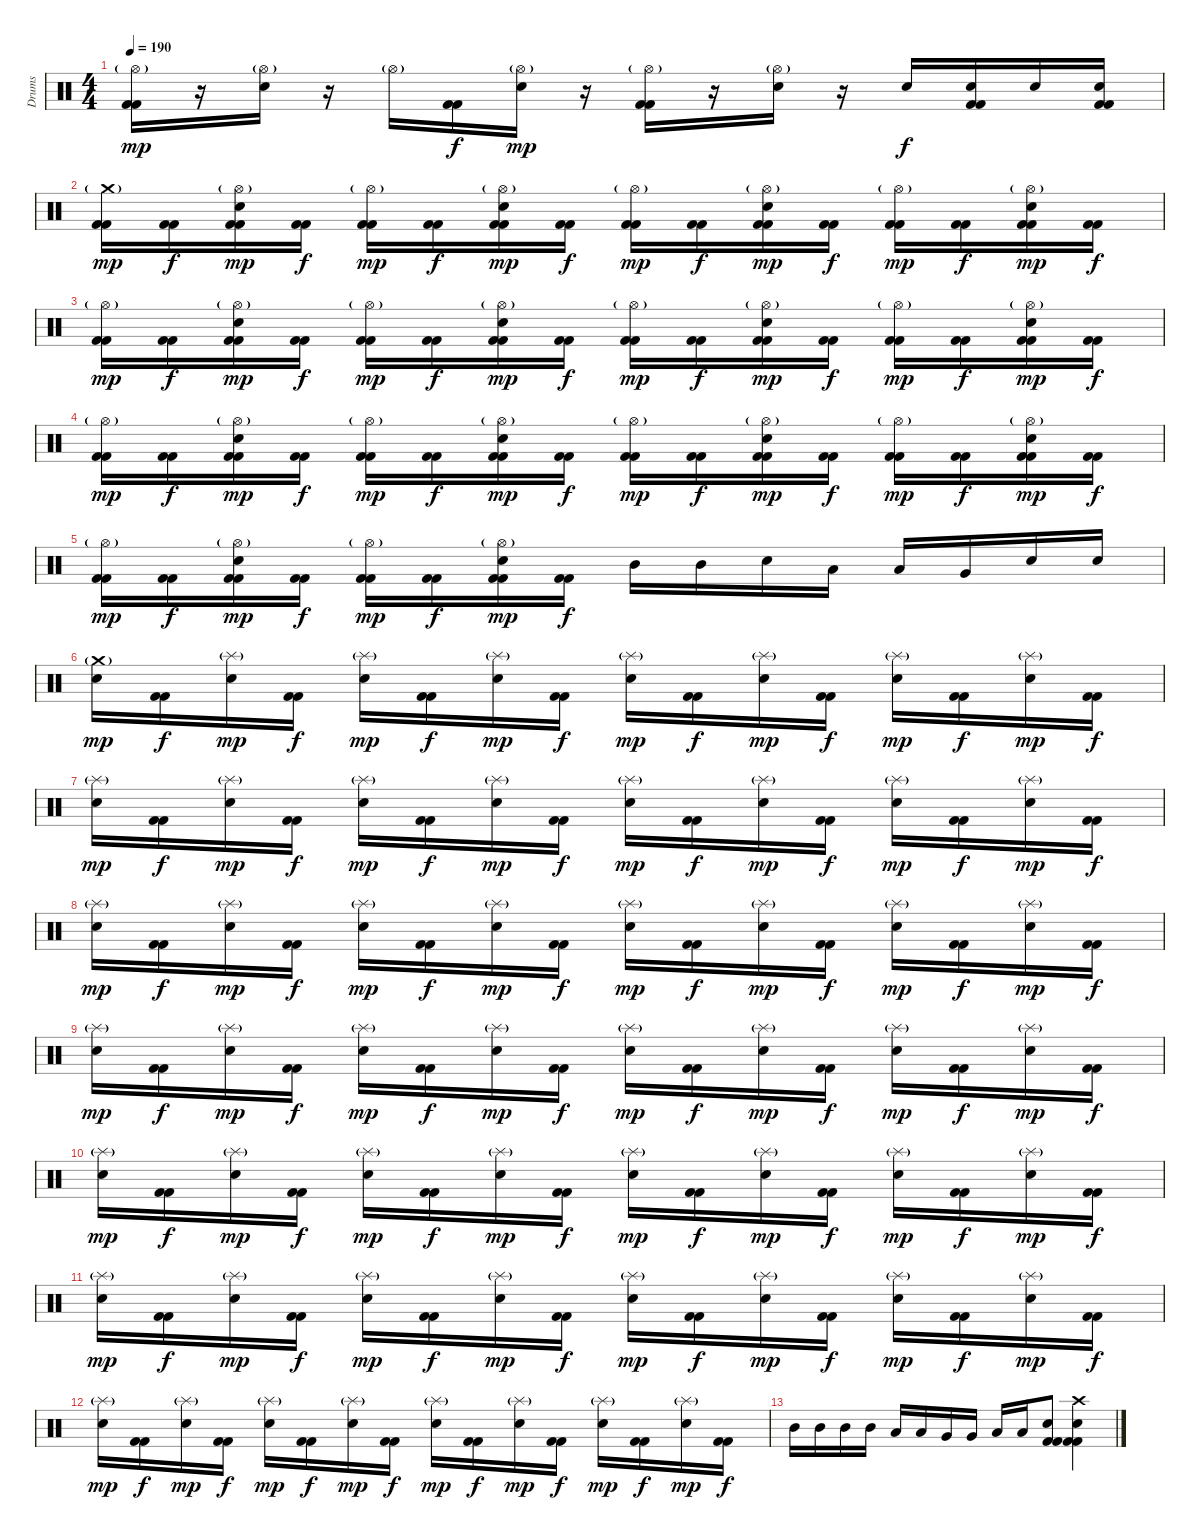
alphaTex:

\track ("Drums" "Drums") {instrument percussion}
\staff {score}
\articulation defaults
\ts (4 4)
\tempo 190
\clef neutral
\ks c
("Hi-Hat (open)"{g} "Kick (hit) 2" "Kick (hit) 2").16{dy mp} r.16 ("Hi-Hat (open)"{g} "Electric Snare (hit)").16 r.16 "Hi-Hat (open)"{g}.16 ("Kick (hit) 2" "Kick (hit) 2").16{dy f} ("Hi-Hat (open)"{g} "Electric Snare (hit)").16{dy mp} r.16 ("Hi-Hat (open)"{g} "Kick (hit) 2" "Kick (hit) 2").16 r.16 ("Hi-Hat (open)"{g} "Electric Snare (hit)").16 r.16 "Electric Snare (hit)".16{dy f} ("Kick (hit) 2" "Electric Snare (hit)" "Kick (hit) 2").16 "Electric Snare (hit)".16 ("Kick (hit) 2" "Electric Snare (hit)" "Kick (hit) 2").16 |
("Crash medium (hit)"{g} "Kick (hit) 2" "Kick (hit) 2").16{dy mp} ("Kick (hit) 2" "Kick (hit) 2").16{dy f} ("Hi-Hat (open)"{g} "Kick (hit) 2" "Electric Snare (hit)" "Kick (hit) 2").16{dy mp} ("Kick (hit) 2" "Kick (hit) 2").16{dy f} ("Hi-Hat (open)"{g} "Kick (hit) 2" "Kick (hit) 2").16{dy mp} ("Kick (hit) 2" "Kick (hit) 2").16{dy f} ("Hi-Hat (open)"{g} "Kick (hit) 2" "Electric Snare (hit)" "Kick (hit) 2").16{dy mp} ("Kick (hit) 2" "Kick (hit) 2").16{dy f} ("Hi-Hat (open)"{g} "Kick (hit) 2" "Kick (hit) 2").16{dy mp} ("Kick (hit) 2" "Kick (hit) 2").16{dy f} ("Hi-Hat (open)"{g} "Kick (hit) 2" "Electric Snare (hit)" "Kick (hit) 2").16{dy mp} ("Kick (hit) 2" "Kick (hit) 2").16{dy f} ("Hi-Hat (open)"{g} "Kick (hit) 2" "Kick (hit) 2").16{dy mp} ("Kick (hit) 2" "Kick (hit) 2").16{dy f} ("Hi-Hat (open)"{g} "Kick (hit) 2" "Electric Snare (hit)" "Kick (hit) 2").16{dy mp} ("Kick (hit) 2" "Kick (hit) 2").16{dy f} |
("Hi-Hat (open)"{g} "Kick (hit) 2" "Kick (hit) 2").16{dy mp} ("Kick (hit) 2" "Kick (hit) 2").16{dy f} ("Hi-Hat (open)"{g} "Kick (hit) 2" "Electric Snare (hit)" "Kick (hit) 2").16{dy mp} ("Kick (hit) 2" "Kick (hit) 2").16{dy f} ("Hi-Hat (open)"{g} "Kick (hit) 2" "Kick (hit) 2").16{dy mp} ("Kick (hit) 2" "Kick (hit) 2").16{dy f} ("Hi-Hat (open)"{g} "Kick (hit) 2" "Electric Snare (hit)" "Kick (hit) 2").16{dy mp} ("Kick (hit) 2" "Kick (hit) 2").16{dy f} ("Hi-Hat (open)"{g} "Kick (hit) 2" "Kick (hit) 2").16{dy mp} ("Kick (hit) 2" "Kick (hit) 2").16{dy f} ("Hi-Hat (open)"{g} "Kick (hit) 2" "Electric Snare (hit)" "Kick (hit) 2").16{dy mp} ("Kick (hit) 2" "Kick (hit) 2").16{dy f} ("Hi-Hat (open)"{g} "Kick (hit) 2" "Kick (hit) 2").16{dy mp} ("Kick (hit) 2" "Kick (hit) 2").16{dy f} ("Hi-Hat (open)"{g} "Kick (hit) 2" "Electric Snare (hit)" "Kick (hit) 2").16{dy mp} ("Kick (hit) 2" "Kick (hit) 2").16{dy f} |
("Hi-Hat (open)"{g} "Kick (hit) 2" "Kick (hit) 2").16{dy mp} ("Kick (hit) 2" "Kick (hit) 2").16{dy f} ("Hi-Hat (open)"{g} "Kick (hit) 2" "Electric Snare (hit)" "Kick (hit) 2").16{dy mp} ("Kick (hit) 2" "Kick (hit) 2").16{dy f} ("Hi-Hat (open)"{g} "Kick (hit) 2" "Kick (hit) 2").16{dy mp} ("Kick (hit) 2" "Kick (hit) 2").16{dy f} ("Hi-Hat (open)"{g} "Kick (hit) 2" "Electric Snare (hit)" "Kick (hit) 2").16{dy mp} ("Kick (hit) 2" "Kick (hit) 2").16{dy f} ("Hi-Hat (open)"{g} "Kick (hit) 2" "Kick (hit) 2").16{dy mp} ("Kick (hit) 2" "Kick (hit) 2").16{dy f} ("Hi-Hat (open)"{g} "Kick (hit) 2" "Electric Snare (hit)" "Kick (hit) 2").16{dy mp} ("Kick (hit) 2" "Kick (hit) 2").16{dy f} ("Hi-Hat (open)"{g} "Kick (hit) 2" "Kick (hit) 2").16{dy mp} ("Kick (hit) 2" "Kick (hit) 2").16{dy f} ("Hi-Hat (open)"{g} "Kick (hit) 2" "Electric Snare (hit)" "Kick (hit) 2").16{dy mp} ("Kick (hit) 2" "Kick (hit) 2").16{dy f} |
("Hi-Hat (open)"{g} "Kick (hit) 2" "Kick (hit) 2").16{dy mp} ("Kick (hit) 2" "Kick (hit) 2").16{dy f} ("Hi-Hat (open)"{g} "Kick (hit) 2" "Electric Snare (hit)" "Kick (hit) 2").16{dy mp} ("Kick (hit) 2" "Kick (hit) 2").16{dy f} ("Hi-Hat (open)"{g} "Kick (hit) 2" "Kick (hit) 2").16{dy mp} ("Kick (hit) 2" "Kick (hit) 2").16{dy f} ("Hi-Hat (open)"{g} "Kick (hit) 2" "Electric Snare (hit)" "Kick (hit) 2").16{dy mp} ("Kick (hit) 2" "Kick (hit) 2").16{dy f} "Mid Tom (hit)".16 "Mid Tom (hit)".16 "Electric Snare (hit)".16 "Low Tom (hit)".16 "Low Tom (hit)".16 "Very Low Tom (hit)".16 "Electric Snare (hit)".16 "Electric Snare (hit)".16 |
("Crash medium (hit)"{g} "Electric Snare (hit)").16{dy mp} ("Kick (hit) 2" "Kick (hit) 2").16{dy f} ("Splash (hit)"{g} "Electric Snare (hit)").16{dy mp} ("Kick (hit) 2" "Kick (hit) 2").16{dy f} ("Splash (hit)"{g} "Electric Snare (hit)").16{dy mp} ("Kick (hit) 2" "Kick (hit) 2").16{dy f} ("Splash (hit)"{g} "Electric Snare (hit)").16{dy mp} ("Kick (hit) 2" "Kick (hit) 2").16{dy f} ("Splash (hit)"{g} "Electric Snare (hit)").16{dy mp} ("Kick (hit) 2" "Kick (hit) 2").16{dy f} ("Splash (hit)"{g} "Electric Snare (hit)").16{dy mp} ("Kick (hit) 2" "Kick (hit) 2").16{dy f} ("Splash (hit)"{g} "Electric Snare (hit)").16{dy mp} ("Kick (hit) 2" "Kick (hit) 2").16{dy f} ("Splash (hit)"{g} "Electric Snare (hit)").16{dy mp} ("Kick (hit) 2" "Kick (hit) 2").16{dy f} |
("Splash (hit)"{g} "Electric Snare (hit)").16{dy mp} ("Kick (hit) 2" "Kick (hit) 2").16{dy f} ("Splash (hit)"{g} "Electric Snare (hit)").16{dy mp} ("Kick (hit) 2" "Kick (hit) 2").16{dy f} ("Splash (hit)"{g} "Electric Snare (hit)").16{dy mp} ("Kick (hit) 2" "Kick (hit) 2").16{dy f} ("Splash (hit)"{g} "Electric Snare (hit)").16{dy mp} ("Kick (hit) 2" "Kick (hit) 2").16{dy f} ("Splash (hit)"{g} "Electric Snare (hit)").16{dy mp} ("Kick (hit) 2" "Kick (hit) 2").16{dy f} ("Splash (hit)"{g} "Electric Snare (hit)").16{dy mp} ("Kick (hit) 2" "Kick (hit) 2").16{dy f} ("Splash (hit)"{g} "Electric Snare (hit)").16{dy mp} ("Kick (hit) 2" "Kick (hit) 2").16{dy f} ("Splash (hit)"{g} "Electric Snare (hit)").16{dy mp} ("Kick (hit) 2" "Kick (hit) 2").16{dy f} |
("Splash (hit)"{g} "Electric Snare (hit)").16{dy mp} ("Kick (hit) 2" "Kick (hit) 2").16{dy f} ("Splash (hit)"{g} "Electric Snare (hit)").16{dy mp} ("Kick (hit) 2" "Kick (hit) 2").16{dy f} ("Splash (hit)"{g} "Electric Snare (hit)").16{dy mp} ("Kick (hit) 2" "Kick (hit) 2").16{dy f} ("Splash (hit)"{g} "Electric Snare (hit)").16{dy mp} ("Kick (hit) 2" "Kick (hit) 2").16{dy f} ("Splash (hit)"{g} "Electric Snare (hit)").16{dy mp} ("Kick (hit) 2" "Kick (hit) 2").16{dy f} ("Splash (hit)"{g} "Electric Snare (hit)").16{dy mp} ("Kick (hit) 2" "Kick (hit) 2").16{dy f} ("Splash (hit)"{g} "Electric Snare (hit)").16{dy mp} ("Kick (hit) 2" "Kick (hit) 2").16{dy f} ("Splash (hit)"{g} "Electric Snare (hit)").16{dy mp} ("Kick (hit) 2" "Kick (hit) 2").16{dy f} |
("Splash (hit)"{g} "Electric Snare (hit)").16{dy mp} ("Kick (hit) 2" "Kick (hit) 2").16{dy f} ("Splash (hit)"{g} "Electric Snare (hit)").16{dy mp} ("Kick (hit) 2" "Kick (hit) 2").16{dy f} ("Splash (hit)"{g} "Electric Snare (hit)").16{dy mp} ("Kick (hit) 2" "Kick (hit) 2").16{dy f} ("Splash (hit)"{g} "Electric Snare (hit)").16{dy mp} ("Kick (hit) 2" "Kick (hit) 2").16{dy f} ("Splash (hit)"{g} "Electric Snare (hit)").16{dy mp} ("Kick (hit) 2" "Kick (hit) 2").16{dy f} ("Splash (hit)"{g} "Electric Snare (hit)").16{dy mp} ("Kick (hit) 2" "Kick (hit) 2").16{dy f} ("Splash (hit)"{g} "Electric Snare (hit)").16{dy mp} ("Kick (hit) 2" "Kick (hit) 2").16{dy f} ("Splash (hit)"{g} "Electric Snare (hit)").16{dy mp} ("Kick (hit) 2" "Kick (hit) 2").16{dy f} |
("Splash (hit)"{g} "Electric Snare (hit)").16{dy mp} ("Kick (hit) 2" "Kick (hit) 2").16{dy f} ("Splash (hit)"{g} "Electric Snare (hit)").16{dy mp} ("Kick (hit) 2" "Kick (hit) 2").16{dy f} ("Splash (hit)"{g} "Electric Snare (hit)").16{dy mp} ("Kick (hit) 2" "Kick (hit) 2").16{dy f} ("Splash (hit)"{g} "Electric Snare (hit)").16{dy mp} ("Kick (hit) 2" "Kick (hit) 2").16{dy f} ("Splash (hit)"{g} "Electric Snare (hit)").16{dy mp} ("Kick (hit) 2" "Kick (hit) 2").16{dy f} ("Splash (hit)"{g} "Electric Snare (hit)").16{dy mp} ("Kick (hit) 2" "Kick (hit) 2").16{dy f} ("Splash (hit)"{g} "Electric Snare (hit)").16{dy mp} ("Kick (hit) 2" "Kick (hit) 2").16{dy f} ("Splash (hit)"{g} "Electric Snare (hit)").16{dy mp} ("Kick (hit) 2" "Kick (hit) 2").16{dy f} |
("Splash (hit)"{g} "Electric Snare (hit)").16{dy mp} ("Kick (hit) 2" "Kick (hit) 2").16{dy f} ("Splash (hit)"{g} "Electric Snare (hit)").16{dy mp} ("Kick (hit) 2" "Kick (hit) 2").16{dy f} ("Splash (hit)"{g} "Electric Snare (hit)").16{dy mp} ("Kick (hit) 2" "Kick (hit) 2").16{dy f} ("Splash (hit)"{g} "Electric Snare (hit)").16{dy mp} ("Kick (hit) 2" "Kick (hit) 2").16{dy f} ("Splash (hit)"{g} "Electric Snare (hit)").16{dy mp} ("Kick (hit) 2" "Kick (hit) 2").16{dy f} ("Splash (hit)"{g} "Electric Snare (hit)").16{dy mp} ("Kick (hit) 2" "Kick (hit) 2").16{dy f} ("Splash (hit)"{g} "Electric Snare (hit)").16{dy mp} ("Kick (hit) 2" "Kick (hit) 2").16{dy f} ("Splash (hit)"{g} "Electric Snare (hit)").16{dy mp} ("Kick (hit) 2" "Kick (hit) 2").16{dy f} |
("Splash (hit)"{g} "Electric Snare (hit)").16{dy mp} ("Kick (hit) 2" "Kick (hit) 2").16{dy f} ("Splash (hit)"{g} "Electric Snare (hit)").16{dy mp} ("Kick (hit) 2" "Kick (hit) 2").16{dy f} ("Splash (hit)"{g} "Electric Snare (hit)").16{dy mp} ("Kick (hit) 2" "Kick (hit) 2").16{dy f} ("Splash (hit)"{g} "Electric Snare (hit)").16{dy mp} ("Kick (hit) 2" "Kick (hit) 2").16{dy f} ("Splash (hit)"{g} "Electric Snare (hit)").16{dy mp} ("Kick (hit) 2" "Kick (hit) 2").16{dy f} ("Splash (hit)"{g} "Electric Snare (hit)").16{dy mp} ("Kick (hit) 2" "Kick (hit) 2").16{dy f} ("Splash (hit)"{g} "Electric Snare (hit)").16{dy mp} ("Kick (hit) 2" "Kick (hit) 2").16{dy f} ("Splash (hit)"{g} "Electric Snare (hit)").16{dy mp} ("Kick (hit) 2" "Kick (hit) 2").16{dy f} |
"Mid Tom (hit)".16 "Mid Tom (hit)".16 "Mid Tom (hit)".16 "Mid Tom (hit)".16 "Low Tom (hit)".16 "Low Tom (hit)".16 "Very Low Tom (hit)".16 "Very Low Tom (hit)".16 "Low Floor Tom (hit)".16 "Low Floor Tom (hit)".16 ("Kick (hit) 2" "Electric Snare (hit)" "Kick (hit) 2").8 ("Kick (hit) 2" "Crash high (hit)" "Electric Snare (hit)" "Kick (hit) 2").4
